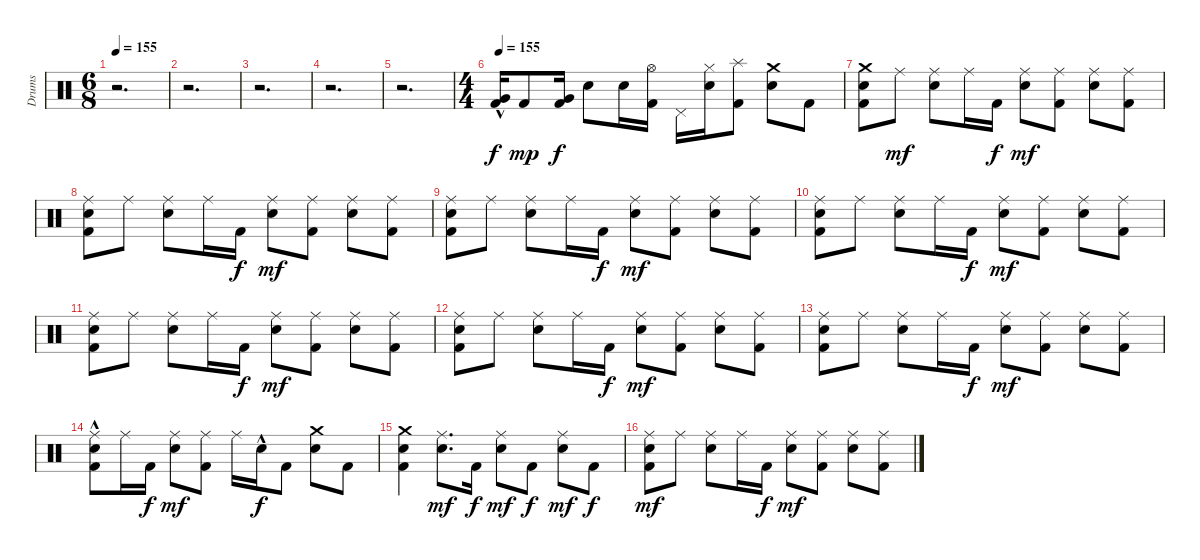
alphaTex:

\track ("Drums" "Drums") {instrument percussion}
\staff {score}
\articulation defaults
\ts (6 8)
\tempo 155
\tempo 50
\tempo 155
\clef neutral
\ks c
r.2{d dy f} |
r.2{d} |
r.2{d} |
r.2{d} |
r.2{d} |
\ts (4 4)
\tempo 155
("Very Low Tom (hit)"{hac} "Kick (hit) 2").16 "Kick (hit) 2".8{dy mp} ("Very Low Tom (hit)" "Kick (hit) 2").16{dy f} "Snare (hit) 2".8 "Snare (hit) 2".16 ("Kick (hit) 2" "Hi-Hat (open)").16 "Pedal Hi-Hat (hit)".16 ("Snare (hit) 2" "Hi-Hat (closed)").16 ("Kick (hit) 2" "Splash (hit)").8 ("Snare (hit) 2" "Crash medium (hit)").8 "Kick (hit) 2".8 |
("Kick (hit) 2" "Snare (hit) 2" "Crash medium (hit)").8 "Ride (middle)".8{dy mf} ("Snare (hit) 2" "Ride (middle)").8 "Ride (middle)".16 "Kick (hit) 2".16{dy f} ("Snare (hit) 2" "Ride (middle)").8{dy mf} ("Kick (hit) 2" "Ride (middle)").8 ("Snare (hit) 2" "Ride (middle)").8 ("Kick (hit) 2" "Ride (middle)").8 |
("Kick (hit) 2" "Snare (hit) 2" "Ride (middle)").8 "Ride (middle)".8 ("Snare (hit) 2" "Ride (middle)").8 "Ride (middle)".16 "Kick (hit) 2".16{dy f} ("Snare (hit) 2" "Ride (middle)").8{dy mf} ("Kick (hit) 2" "Ride (middle)").8 ("Snare (hit) 2" "Ride (middle)").8 ("Kick (hit) 2" "Ride (middle)").8 |
("Kick (hit) 2" "Snare (hit) 2" "Ride (middle)").8 "Ride (middle)".8 ("Snare (hit) 2" "Ride (middle)").8 "Ride (middle)".16 "Kick (hit) 2".16{dy f} ("Snare (hit) 2" "Ride (middle)").8{dy mf} ("Kick (hit) 2" "Ride (middle)").8 ("Snare (hit) 2" "Ride (middle)").8 ("Kick (hit) 2" "Ride (middle)").8 |
("Kick (hit) 2" "Snare (hit) 2" "Ride (middle)").8 "Ride (middle)".8 ("Snare (hit) 2" "Ride (middle)").8 "Ride (middle)".16 "Kick (hit) 2".16{dy f} ("Snare (hit) 2" "Ride (middle)").8{dy mf} ("Kick (hit) 2" "Ride (middle)").8 ("Snare (hit) 2" "Ride (middle)").8 ("Kick (hit) 2" "Ride (middle)").8 |
("Kick (hit) 2" "Snare (hit) 2" "Ride (middle)").8 "Ride (middle)".8 ("Snare (hit) 2" "Ride (middle)").8 "Ride (middle)".16 "Kick (hit) 2".16{dy f} ("Snare (hit) 2" "Ride (middle)").8{dy mf} ("Kick (hit) 2" "Ride (middle)").8 ("Snare (hit) 2" "Ride (middle)").8 ("Kick (hit) 2" "Ride (middle)").8 |
("Kick (hit) 2" "Snare (hit) 2" "Ride (middle)").8 "Ride (middle)".8 ("Snare (hit) 2" "Ride (middle)").8 "Ride (middle)".16 "Kick (hit) 2".16{dy f} ("Snare (hit) 2" "Ride (middle)").8{dy mf} ("Kick (hit) 2" "Ride (middle)").8 ("Snare (hit) 2" "Ride (middle)").8 ("Kick (hit) 2" "Ride (middle)").8 |
("Kick (hit) 2" "Snare (hit) 2" "Ride (middle)").8 "Ride (middle)".8 ("Snare (hit) 2" "Ride (middle)").8 "Ride (middle)".16 "Kick (hit) 2".16{dy f} ("Snare (hit) 2" "Ride (middle)").8{dy mf} ("Kick (hit) 2" "Ride (middle)").8 ("Snare (hit) 2" "Ride (middle)").8 ("Kick (hit) 2" "Ride (middle)").8 |
("Snare (hit) 2" "Ride (middle)" "Kick (hit) 2"{hac}).8 "Ride (middle)".16 "Kick (hit) 2".16{dy f} ("Snare (hit) 2" "Ride (middle)").8{dy mf} ("Ride (middle)" "Kick (hit) 2").8 "Ride (middle)".16 "Electric Snare (hit)"{hac}.16{dy f} "Kick (hit) 2".8 ("Snare (hit) 2" "Crash medium (hit)").8 "Kick (hit) 2".8 |
("Kick (hit) 2" "Snare (hit) 2" "Crash medium (hit)").4 ("Snare (hit) 2" "Ride (middle)").8{d dy mf} "Kick (hit) 2".16{dy f} ("Snare (hit) 2" "Ride (middle)").8{dy mf} "Kick (hit) 2".8{dy f} ("Snare (hit) 2" "Ride (middle)").8{dy mf} "Kick (hit) 2".8{dy f} |
("Kick (hit) 2" "Snare (hit) 2" "Ride (middle)").8{dy mf} "Ride (middle)".8 ("Snare (hit) 2" "Ride (middle)").8 "Ride (middle)".16 "Kick (hit) 2".16{dy f} ("Snare (hit) 2" "Ride (middle)").8{dy mf} ("Kick (hit) 2" "Ride (middle)").8 ("Snare (hit) 2" "Ride (middle)").8 ("Kick (hit) 2" "Ride (middle)").8
